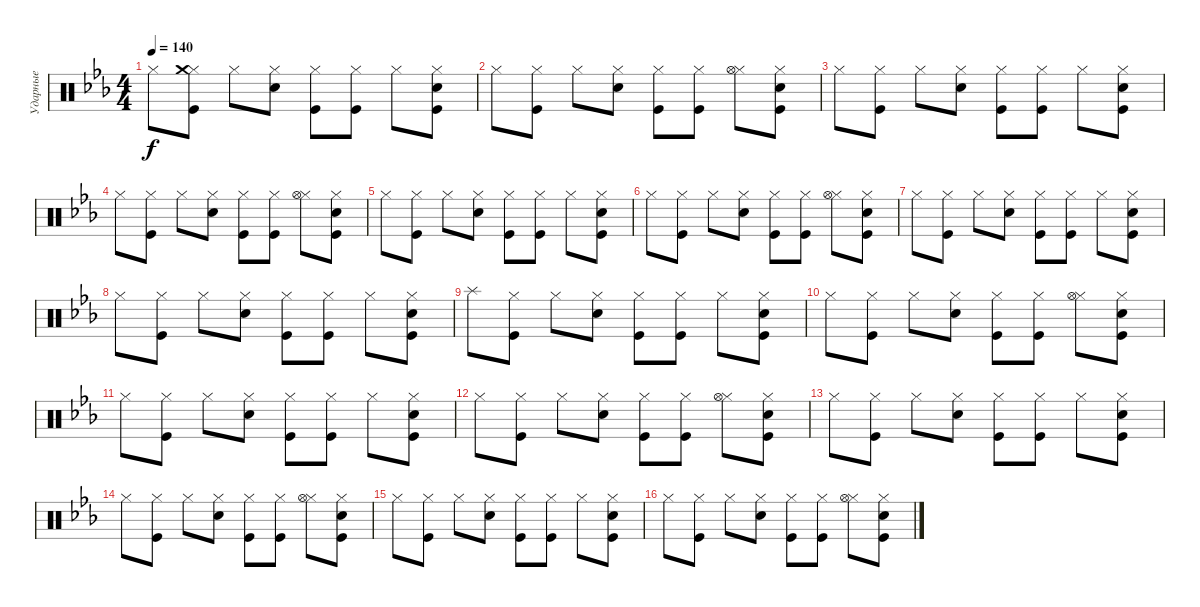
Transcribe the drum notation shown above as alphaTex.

\track ("Ударные" "Ударные") {instrument percussion}
\staff {score}
\articulation defaults
\ts (4 4)
\tempo 140
\clef neutral
\ks cminor "Hi-Hat (closed)".8{dy f}
("Hi-Hat (closed)" "Crash medium (hit)" "Kick (hit)").8 "Hi-Hat (closed)".8 ("Hi-Hat (closed)" "Snare (hit) 2").8 ("Hi-Hat (closed)" "Kick (hit)").8 ("Hi-Hat (closed)" "Kick (hit)").8 "Hi-Hat (closed)".8 ("Hi-Hat (closed)" "Kick (hit)" "Snare (hit) 2").8 |
"Hi-Hat (closed)".8 ("Hi-Hat (closed)" "Kick (hit)").8 "Hi-Hat (closed)".8 ("Hi-Hat (closed)" "Snare (hit) 2").8 ("Hi-Hat (closed)" "Kick (hit)").8 ("Hi-Hat (closed)" "Kick (hit)").8 ("Hi-Hat (closed)" "Hi-Hat (open)").8 ("Hi-Hat (closed)" "Kick (hit)" "Snare (hit) 2").8 |
"Hi-Hat (closed)".8 ("Hi-Hat (closed)" "Kick (hit)").8 "Hi-Hat (closed)".8 ("Hi-Hat (closed)" "Snare (hit) 2").8 ("Hi-Hat (closed)" "Kick (hit)").8 ("Hi-Hat (closed)" "Kick (hit)").8 "Hi-Hat (closed)".8 ("Hi-Hat (closed)" "Kick (hit)" "Snare (hit) 2").8 |
"Hi-Hat (closed)".8 ("Hi-Hat (closed)" "Kick (hit)").8 "Hi-Hat (closed)".8 ("Hi-Hat (closed)" "Snare (hit) 2").8 ("Hi-Hat (closed)" "Kick (hit)").8 ("Hi-Hat (closed)" "Kick (hit)").8 ("Hi-Hat (closed)" "Hi-Hat (open)").8 ("Hi-Hat (closed)" "Kick (hit)" "Snare (hit) 2").8 |
"Hi-Hat (closed)".8 ("Hi-Hat (closed)" "Kick (hit)").8 "Hi-Hat (closed)".8 ("Hi-Hat (closed)" "Snare (hit) 2").8 ("Hi-Hat (closed)" "Kick (hit)").8 ("Hi-Hat (closed)" "Kick (hit)").8 "Hi-Hat (closed)".8 ("Hi-Hat (closed)" "Kick (hit)" "Snare (hit) 2").8 |
"Hi-Hat (closed)".8 ("Hi-Hat (closed)" "Kick (hit)").8 "Hi-Hat (closed)".8 ("Hi-Hat (closed)" "Snare (hit) 2").8 ("Hi-Hat (closed)" "Kick (hit)").8 ("Hi-Hat (closed)" "Kick (hit)").8 ("Hi-Hat (closed)" "Hi-Hat (open)").8 ("Hi-Hat (closed)" "Kick (hit)" "Snare (hit) 2").8 |
"Hi-Hat (closed)".8 ("Hi-Hat (closed)" "Kick (hit)").8 "Hi-Hat (closed)".8 ("Hi-Hat (closed)" "Snare (hit) 2").8 ("Hi-Hat (closed)" "Kick (hit)").8 ("Hi-Hat (closed)" "Kick (hit)").8 "Hi-Hat (closed)".8 ("Hi-Hat (closed)" "Kick (hit)" "Snare (hit) 2").8 |
"Hi-Hat (closed)".8 ("Hi-Hat (closed)" "Kick (hit)").8 "Hi-Hat (closed)".8 ("Hi-Hat (closed)" "Snare (hit) 2").8 ("Hi-Hat (closed)" "Kick (hit)").8 ("Hi-Hat (closed)" "Kick (hit)").8 "Hi-Hat (closed)".8 ("Hi-Hat (closed)" "Kick (hit)" "Snare (hit) 2").8 |
"Splash (hit)".8 ("Hi-Hat (closed)" "Kick (hit)").8 "Hi-Hat (closed)".8 ("Hi-Hat (closed)" "Snare (hit) 2").8 ("Hi-Hat (closed)" "Kick (hit)").8 ("Hi-Hat (closed)" "Kick (hit)").8 "Hi-Hat (closed)".8 ("Hi-Hat (closed)" "Kick (hit)" "Snare (hit) 2").8 |
"Hi-Hat (closed)".8 ("Hi-Hat (closed)" "Kick (hit)").8 "Hi-Hat (closed)".8 ("Hi-Hat (closed)" "Snare (hit) 2").8 ("Hi-Hat (closed)" "Kick (hit)").8 ("Hi-Hat (closed)" "Kick (hit)").8 ("Hi-Hat (closed)" "Hi-Hat (open)").8 ("Hi-Hat (closed)" "Kick (hit)" "Snare (hit) 2").8 |
"Hi-Hat (closed)".8 ("Hi-Hat (closed)" "Kick (hit)").8 "Hi-Hat (closed)".8 ("Hi-Hat (closed)" "Snare (hit) 2").8 ("Hi-Hat (closed)" "Kick (hit)").8 ("Hi-Hat (closed)" "Kick (hit)").8 "Hi-Hat (closed)".8 ("Hi-Hat (closed)" "Kick (hit)" "Snare (hit) 2").8 |
"Hi-Hat (closed)".8 ("Hi-Hat (closed)" "Kick (hit)").8 "Hi-Hat (closed)".8 ("Hi-Hat (closed)" "Snare (hit) 2").8 ("Hi-Hat (closed)" "Kick (hit)").8 ("Hi-Hat (closed)" "Kick (hit)").8 ("Hi-Hat (closed)" "Hi-Hat (open)").8 ("Hi-Hat (closed)" "Kick (hit)" "Snare (hit) 2").8 |
"Hi-Hat (closed)".8 ("Hi-Hat (closed)" "Kick (hit)").8 "Hi-Hat (closed)".8 ("Hi-Hat (closed)" "Snare (hit) 2").8 ("Hi-Hat (closed)" "Kick (hit)").8 ("Hi-Hat (closed)" "Kick (hit)").8 "Hi-Hat (closed)".8 ("Hi-Hat (closed)" "Kick (hit)" "Snare (hit) 2").8 |
"Hi-Hat (closed)".8 ("Hi-Hat (closed)" "Kick (hit)").8 "Hi-Hat (closed)".8 ("Hi-Hat (closed)" "Snare (hit) 2").8 ("Hi-Hat (closed)" "Kick (hit)").8 ("Hi-Hat (closed)" "Kick (hit)").8 ("Hi-Hat (closed)" "Hi-Hat (open)").8 ("Hi-Hat (closed)" "Kick (hit)" "Snare (hit) 2").8 |
"Hi-Hat (closed)".8 ("Hi-Hat (closed)" "Kick (hit)").8 "Hi-Hat (closed)".8 ("Hi-Hat (closed)" "Snare (hit) 2").8 ("Hi-Hat (closed)" "Kick (hit)").8 ("Hi-Hat (closed)" "Kick (hit)").8 "Hi-Hat (closed)".8 ("Hi-Hat (closed)" "Kick (hit)" "Snare (hit) 2").8 |
"Hi-Hat (closed)".8 ("Hi-Hat (closed)" "Kick (hit)").8 "Hi-Hat (closed)".8 ("Hi-Hat (closed)" "Snare (hit) 2").8 ("Hi-Hat (closed)" "Kick (hit)").8 ("Hi-Hat (closed)" "Kick (hit)").8 ("Hi-Hat (closed)" "Hi-Hat (open)").8 ("Hi-Hat (closed)" "Kick (hit)" "Snare (hit) 2").8
